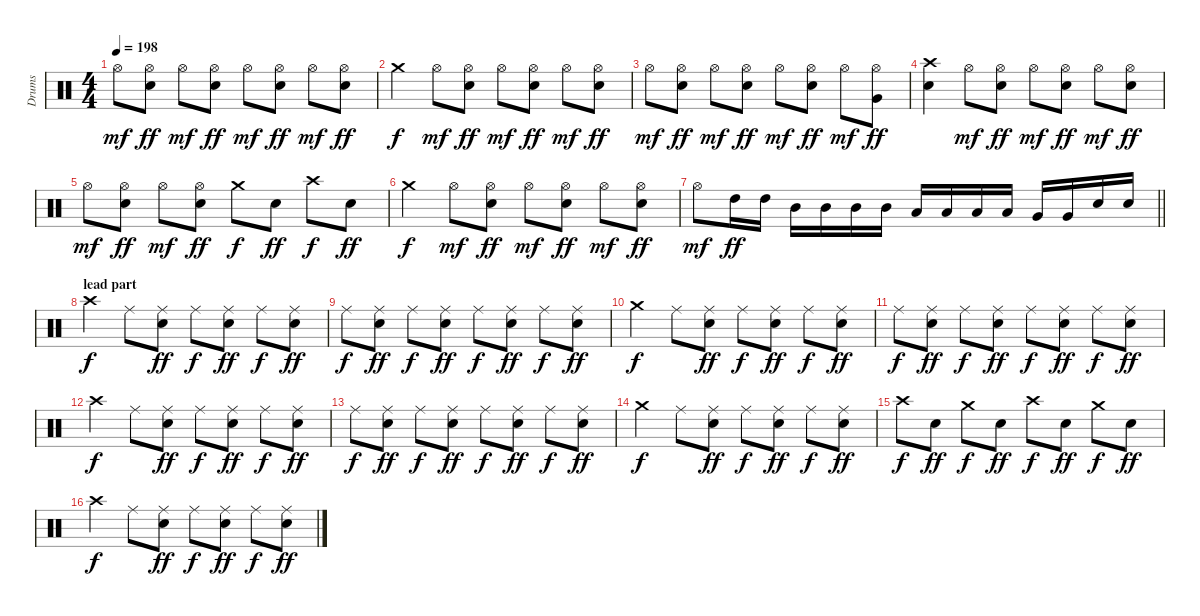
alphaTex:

\track ("Drums" "Drums") {instrument percussion}
\staff {score}
\articulation defaults
\ts (4 4)
\tempo 198
\clef neutral
\ks c "Hi-Hat (open)".8{dy mf}
("Hi-Hat (open)" "Snare (hit) 2").8{dy ff} "Hi-Hat (open)".8{dy mf} ("Hi-Hat (open)" "Snare (hit) 2").8{dy ff} "Hi-Hat (open)".8{dy mf} ("Hi-Hat (open)" "Snare (hit) 2").8{dy ff} "Hi-Hat (open)".8{dy mf} ("Hi-Hat (open)" "Snare (hit) 2").8{dy ff} |
"Crash medium (hit)".4{dy f} "Hi-Hat (open)".8{dy mf} ("Hi-Hat (open)" "Snare (hit) 2").8{dy ff} "Hi-Hat (open)".8{dy mf} ("Hi-Hat (open)" "Snare (hit) 2").8{dy ff} "Hi-Hat (open)".8{dy mf} ("Hi-Hat (open)" "Snare (hit) 2").8{dy ff} |
"Hi-Hat (open)".8{dy mf} ("Hi-Hat (open)" "Snare (hit) 2").8{dy ff} "Hi-Hat (open)".8{dy mf} ("Hi-Hat (open)" "Snare (hit) 2").8{dy ff} "Hi-Hat (open)".8{dy mf} ("Hi-Hat (open)" "Snare (hit) 2").8{dy ff} "Hi-Hat (open)".8{dy mf} ("Hi-Hat (open)" "Very Low Tom (hit)").8{dy ff} |
("Crash high (hit)" "Snare (hit) 2").4 "Hi-Hat (open)".8{dy mf} ("Hi-Hat (open)" "Snare (hit) 2").8{dy ff} "Hi-Hat (open)".8{dy mf} ("Hi-Hat (open)" "Snare (hit) 2").8{dy ff} "Hi-Hat (open)".8{dy mf} ("Hi-Hat (open)" "Snare (hit) 2").8{dy ff} |
"Hi-Hat (open)".8{dy mf} ("Hi-Hat (open)" "Snare (hit) 2").8{dy ff} "Hi-Hat (open)".8{dy mf} ("Hi-Hat (open)" "Snare (hit) 2").8{dy ff} "Crash medium (hit)".8{dy f} "Snare (hit) 2".8{dy ff} "Crash high (hit)".8{dy f} "Snare (hit) 2".8{dy ff} |
"Crash medium (hit)".4{dy f} "Hi-Hat (open)".8{dy mf} ("Hi-Hat (open)" "Snare (hit) 2").8{dy ff} "Hi-Hat (open)".8{dy mf} ("Hi-Hat (open)" "Snare (hit) 2").8{dy ff} "Hi-Hat (open)".8{dy mf} ("Hi-Hat (open)" "Snare (hit) 2").8{dy ff} |
\barLineRight lightlight "Hi-Hat (open)".8{dy mf} "High Tom (hit)".16{dy ff} "High Tom (hit)".16 "Mid Tom (hit)".16 "Mid Tom (hit)".16 "Mid Tom (hit)".16 "Mid Tom (hit)".16 "Low Tom (hit)".16 "Low Tom (hit)".16 "Low Tom (hit)".16 "Low Tom (hit)".16 "Very Low Tom (hit)".16 "Very Low Tom (hit)".16 "Snare (hit) 2".16 "Snare (hit) 2".16
|
\section ("" "lead part")
"Crash high (hit)".4{dy f} "Ride (middle)".8 ("Ride (middle)" "Snare (hit) 2").8{dy ff} "Ride (middle)".8{dy f} ("Ride (middle)" "Snare (hit) 2").8{dy ff} "Ride (middle)".8{dy f} ("Ride (middle)" "Snare (hit) 2").8{dy ff} |
"Ride (middle)".8{dy f} ("Ride (middle)" "Snare (hit) 2").8{dy ff} "Ride (middle)".8{dy f} ("Ride (middle)" "Snare (hit) 2").8{dy ff} "Ride (middle)".8{dy f} ("Ride (middle)" "Snare (hit) 2").8{dy ff} "Ride (middle)".8{dy f} ("Ride (middle)" "Snare (hit) 2").8{dy ff} |
"Crash medium (hit)".4{dy f} "Ride (middle)".8 ("Ride (middle)" "Snare (hit) 2").8{dy ff} "Ride (middle)".8{dy f} ("Ride (middle)" "Snare (hit) 2").8{dy ff} "Ride (middle)".8{dy f} ("Ride (middle)" "Snare (hit) 2").8{dy ff} |
"Ride (middle)".8{dy f} ("Ride (middle)" "Snare (hit) 2").8{dy ff} "Ride (middle)".8{dy f} ("Ride (middle)" "Snare (hit) 2").8{dy ff} "Ride (middle)".8{dy f} ("Ride (middle)" "Snare (hit) 2").8{dy ff} "Ride (middle)".8{dy f} ("Ride (middle)" "Snare (hit) 2").8{dy ff} |
"Crash high (hit)".4{dy f} "Ride (middle)".8 ("Ride (middle)" "Snare (hit) 2").8{dy ff} "Ride (middle)".8{dy f} ("Ride (middle)" "Snare (hit) 2").8{dy ff} "Ride (middle)".8{dy f} ("Ride (middle)" "Snare (hit) 2").8{dy ff} |
"Ride (middle)".8{dy f} ("Ride (middle)" "Snare (hit) 2").8{dy ff} "Ride (middle)".8{dy f} ("Ride (middle)" "Snare (hit) 2").8{dy ff} "Ride (middle)".8{dy f} ("Ride (middle)" "Snare (hit) 2").8{dy ff} "Ride (middle)".8{dy f} ("Ride (middle)" "Snare (hit) 2").8{dy ff} |
"Crash medium (hit)".4{dy f} "Ride (middle)".8 ("Ride (middle)" "Snare (hit) 2").8{dy ff} "Ride (middle)".8{dy f} ("Ride (middle)" "Snare (hit) 2").8{dy ff} "Ride (middle)".8{dy f} ("Ride (middle)" "Snare (hit) 2").8{dy ff} |
"Crash high (hit)".8{dy f} "Snare (hit) 2".8{dy ff} "Crash medium (hit)".8{dy f} "Snare (hit) 2".8{dy ff} "Crash high (hit)".8{dy f} "Snare (hit) 2".8{dy ff} "Crash medium (hit)".8{dy f} "Snare (hit) 2".8{dy ff} |
"Crash high (hit)".4{dy f} "Ride (middle)".8 ("Ride (middle)" "Snare (hit) 2").8{dy ff} "Ride (middle)".8{dy f} ("Ride (middle)" "Snare (hit) 2").8{dy ff} "Ride (middle)".8{dy f} ("Ride (middle)" "Snare (hit) 2").8{dy ff}
